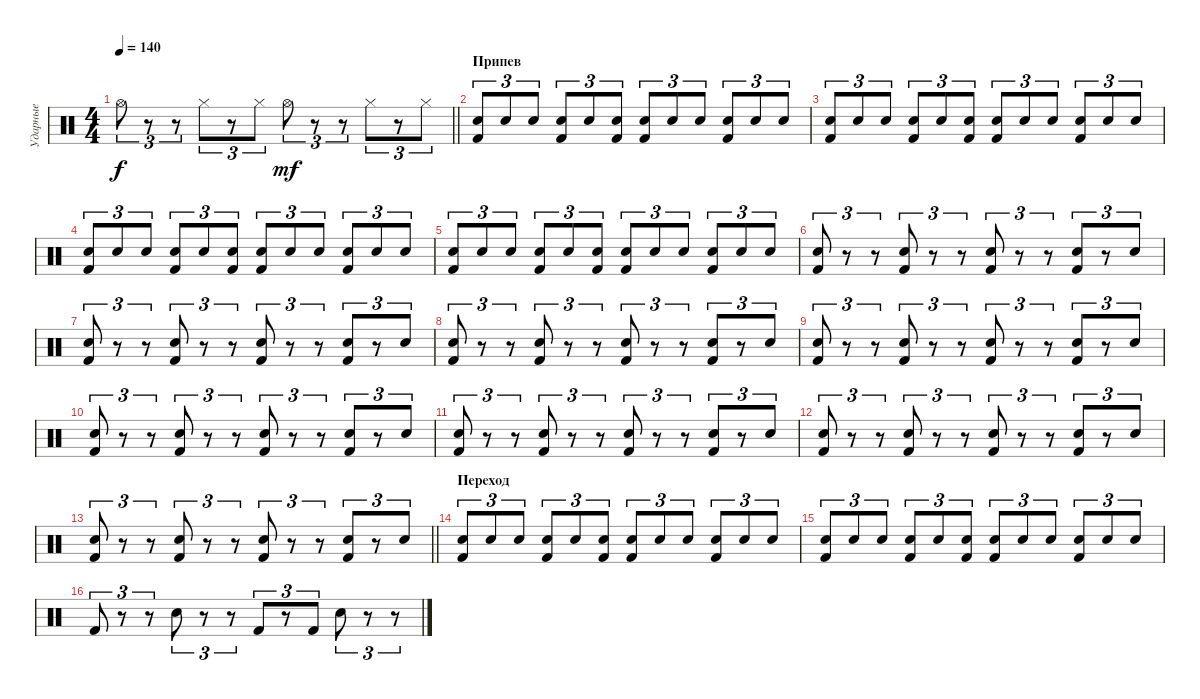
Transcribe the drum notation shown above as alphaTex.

\track ("Ударные" "Ударные") {instrument percussion}
\staff {score}
\articulation defaults
\ts (4 4)
\tempo 140
\clef neutral
\barLineRight lightlight
\ks c "Hi-Hat (open)".8{tu (3 2) dy f}
r.8{tu (3 2)} r.8{tu (3 2)} "Hi-Hat (closed)".8{tu (3 2)} r.8{tu (3 2)} "Hi-Hat (closed)".8{tu (3 2)} "Hi-Hat (open)".8{tu (3 2) dy mf} r.8{tu (3 2)} r.8{tu (3 2)} "Hi-Hat (closed)".8{tu (3 2)} r.8{tu (3 2)} "Hi-Hat (closed)".8{tu (3 2)} |
\section ("" "Припев")
("Electric Snare (hit)" "Kick (hit) 2").8{tu (3 2)} "Electric Snare (hit)".8{tu (3 2)} "Electric Snare (hit)".8{tu (3 2)} ("Electric Snare (hit)" "Kick (hit) 2").8{tu (3 2)} "Electric Snare (hit)".8{tu (3 2)} ("Electric Snare (hit)" "Kick (hit) 2").8{tu (3 2)} ("Electric Snare (hit)" "Kick (hit) 2").8{tu (3 2)} "Electric Snare (hit)".8{tu (3 2)} "Electric Snare (hit)".8{tu (3 2)} ("Electric Snare (hit)" "Kick (hit) 2").8{tu (3 2)} "Electric Snare (hit)".8{tu (3 2)} "Electric Snare (hit)".8{tu (3 2)} |
("Electric Snare (hit)" "Kick (hit) 2").8{tu (3 2)} "Electric Snare (hit)".8{tu (3 2)} "Electric Snare (hit)".8{tu (3 2)} ("Electric Snare (hit)" "Kick (hit) 2").8{tu (3 2)} "Electric Snare (hit)".8{tu (3 2)} ("Electric Snare (hit)" "Kick (hit) 2").8{tu (3 2)} ("Electric Snare (hit)" "Kick (hit) 2").8{tu (3 2)} "Electric Snare (hit)".8{tu (3 2)} "Electric Snare (hit)".8{tu (3 2)} ("Electric Snare (hit)" "Kick (hit) 2").8{tu (3 2)} "Electric Snare (hit)".8{tu (3 2)} "Electric Snare (hit)".8{tu (3 2)} |
("Electric Snare (hit)" "Kick (hit) 2").8{tu (3 2)} "Electric Snare (hit)".8{tu (3 2)} "Electric Snare (hit)".8{tu (3 2)} ("Electric Snare (hit)" "Kick (hit) 2").8{tu (3 2)} "Electric Snare (hit)".8{tu (3 2)} ("Electric Snare (hit)" "Kick (hit) 2").8{tu (3 2)} ("Electric Snare (hit)" "Kick (hit) 2").8{tu (3 2)} "Electric Snare (hit)".8{tu (3 2)} "Electric Snare (hit)".8{tu (3 2)} ("Electric Snare (hit)" "Kick (hit) 2").8{tu (3 2)} "Electric Snare (hit)".8{tu (3 2)} "Electric Snare (hit)".8{tu (3 2)} |
("Electric Snare (hit)" "Kick (hit) 2").8{tu (3 2)} "Electric Snare (hit)".8{tu (3 2)} "Electric Snare (hit)".8{tu (3 2)} ("Electric Snare (hit)" "Kick (hit) 2").8{tu (3 2)} "Electric Snare (hit)".8{tu (3 2)} ("Electric Snare (hit)" "Kick (hit) 2").8{tu (3 2)} ("Electric Snare (hit)" "Kick (hit) 2").8{tu (3 2)} "Electric Snare (hit)".8{tu (3 2)} "Electric Snare (hit)".8{tu (3 2)} ("Electric Snare (hit)" "Kick (hit) 2").8{tu (3 2)} "Electric Snare (hit)".8{tu (3 2)} "Electric Snare (hit)".8{tu (3 2)} |
("Electric Snare (hit)" "Kick (hit) 2").8{tu (3 2)} r.8{tu (3 2)} r.8{tu (3 2)} ("Electric Snare (hit)" "Kick (hit) 2").8{tu (3 2)} r.8{tu (3 2)} r.8{tu (3 2)} ("Electric Snare (hit)" "Kick (hit) 2").8{tu (3 2)} r.8{tu (3 2)} r.8{tu (3 2)} ("Electric Snare (hit)" "Kick (hit) 2").8{tu (3 2)} r.8{tu (3 2)} "Electric Snare (hit)".8{tu (3 2)} |
("Electric Snare (hit)" "Kick (hit) 2").8{tu (3 2)} r.8{tu (3 2)} r.8{tu (3 2)} ("Electric Snare (hit)" "Kick (hit) 2").8{tu (3 2)} r.8{tu (3 2)} r.8{tu (3 2)} ("Electric Snare (hit)" "Kick (hit) 2").8{tu (3 2)} r.8{tu (3 2)} r.8{tu (3 2)} ("Electric Snare (hit)" "Kick (hit) 2").8{tu (3 2)} r.8{tu (3 2)} "Electric Snare (hit)".8{tu (3 2)} |
("Electric Snare (hit)" "Kick (hit) 2").8{tu (3 2)} r.8{tu (3 2)} r.8{tu (3 2)} ("Electric Snare (hit)" "Kick (hit) 2").8{tu (3 2)} r.8{tu (3 2)} r.8{tu (3 2)} ("Electric Snare (hit)" "Kick (hit) 2").8{tu (3 2)} r.8{tu (3 2)} r.8{tu (3 2)} ("Electric Snare (hit)" "Kick (hit) 2").8{tu (3 2)} r.8{tu (3 2)} "Electric Snare (hit)".8{tu (3 2)} |
("Electric Snare (hit)" "Kick (hit) 2").8{tu (3 2)} r.8{tu (3 2)} r.8{tu (3 2)} ("Electric Snare (hit)" "Kick (hit) 2").8{tu (3 2)} r.8{tu (3 2)} r.8{tu (3 2)} ("Electric Snare (hit)" "Kick (hit) 2").8{tu (3 2)} r.8{tu (3 2)} r.8{tu (3 2)} ("Electric Snare (hit)" "Kick (hit) 2").8{tu (3 2)} r.8{tu (3 2)} "Electric Snare (hit)".8{tu (3 2)} |
("Electric Snare (hit)" "Kick (hit) 2").8{tu (3 2)} r.8{tu (3 2)} r.8{tu (3 2)} ("Electric Snare (hit)" "Kick (hit) 2").8{tu (3 2)} r.8{tu (3 2)} r.8{tu (3 2)} ("Electric Snare (hit)" "Kick (hit) 2").8{tu (3 2)} r.8{tu (3 2)} r.8{tu (3 2)} ("Electric Snare (hit)" "Kick (hit) 2").8{tu (3 2)} r.8{tu (3 2)} "Electric Snare (hit)".8{tu (3 2)} |
("Electric Snare (hit)" "Kick (hit) 2").8{tu (3 2)} r.8{tu (3 2)} r.8{tu (3 2)} ("Electric Snare (hit)" "Kick (hit) 2").8{tu (3 2)} r.8{tu (3 2)} r.8{tu (3 2)} ("Electric Snare (hit)" "Kick (hit) 2").8{tu (3 2)} r.8{tu (3 2)} r.8{tu (3 2)} ("Electric Snare (hit)" "Kick (hit) 2").8{tu (3 2)} r.8{tu (3 2)} "Electric Snare (hit)".8{tu (3 2)} |
("Electric Snare (hit)" "Kick (hit) 2").8{tu (3 2)} r.8{tu (3 2)} r.8{tu (3 2)} ("Electric Snare (hit)" "Kick (hit) 2").8{tu (3 2)} r.8{tu (3 2)} r.8{tu (3 2)} ("Electric Snare (hit)" "Kick (hit) 2").8{tu (3 2)} r.8{tu (3 2)} r.8{tu (3 2)} ("Electric Snare (hit)" "Kick (hit) 2").8{tu (3 2)} r.8{tu (3 2)} "Electric Snare (hit)".8{tu (3 2)} |
\barLineRight lightlight
("Electric Snare (hit)" "Kick (hit) 2").8{tu (3 2)} r.8{tu (3 2)} r.8{tu (3 2)} ("Electric Snare (hit)" "Kick (hit) 2").8{tu (3 2)} r.8{tu (3 2)} r.8{tu (3 2)} ("Electric Snare (hit)" "Kick (hit) 2").8{tu (3 2)} r.8{tu (3 2)} r.8{tu (3 2)} ("Electric Snare (hit)" "Kick (hit) 2").8{tu (3 2)} r.8{tu (3 2)} "Electric Snare (hit)".8{tu (3 2)} |
\section ("" "Переход")
("Electric Snare (hit)" "Kick (hit) 2").8{tu (3 2)} "Electric Snare (hit)".8{tu (3 2)} "Electric Snare (hit)".8{tu (3 2)} ("Electric Snare (hit)" "Kick (hit) 2").8{tu (3 2)} "Electric Snare (hit)".8{tu (3 2)} ("Electric Snare (hit)" "Kick (hit) 2").8{tu (3 2)} ("Electric Snare (hit)" "Kick (hit) 2").8{tu (3 2)} "Electric Snare (hit)".8{tu (3 2)} "Electric Snare (hit)".8{tu (3 2)} ("Electric Snare (hit)" "Kick (hit) 2").8{tu (3 2)} "Electric Snare (hit)".8{tu (3 2)} "Electric Snare (hit)".8{tu (3 2)} |
("Electric Snare (hit)" "Kick (hit) 2").8{tu (3 2)} "Electric Snare (hit)".8{tu (3 2)} "Electric Snare (hit)".8{tu (3 2)} ("Electric Snare (hit)" "Kick (hit) 2").8{tu (3 2)} "Electric Snare (hit)".8{tu (3 2)} ("Electric Snare (hit)" "Kick (hit) 2").8{tu (3 2)} ("Electric Snare (hit)" "Kick (hit) 2").8{tu (3 2)} "Electric Snare (hit)".8{tu (3 2)} "Electric Snare (hit)".8{tu (3 2)} ("Electric Snare (hit)" "Kick (hit) 2").8{tu (3 2)} "Electric Snare (hit)".8{tu (3 2)} "Electric Snare (hit)".8{tu (3 2)} |
"Kick (hit) 2".8{tu (3 2)} r.8{tu (3 2)} r.8{tu (3 2)} "Electric Snare (hit)".8{tu (3 2)} r.8{tu (3 2)} r.8{tu (3 2)} "Kick (hit) 2".8{tu (3 2)} r.8{tu (3 2)} "Kick (hit) 2".8{tu (3 2)} "Electric Snare (hit)".8{tu (3 2)} r.8{tu (3 2)} r.8{tu (3 2)}
